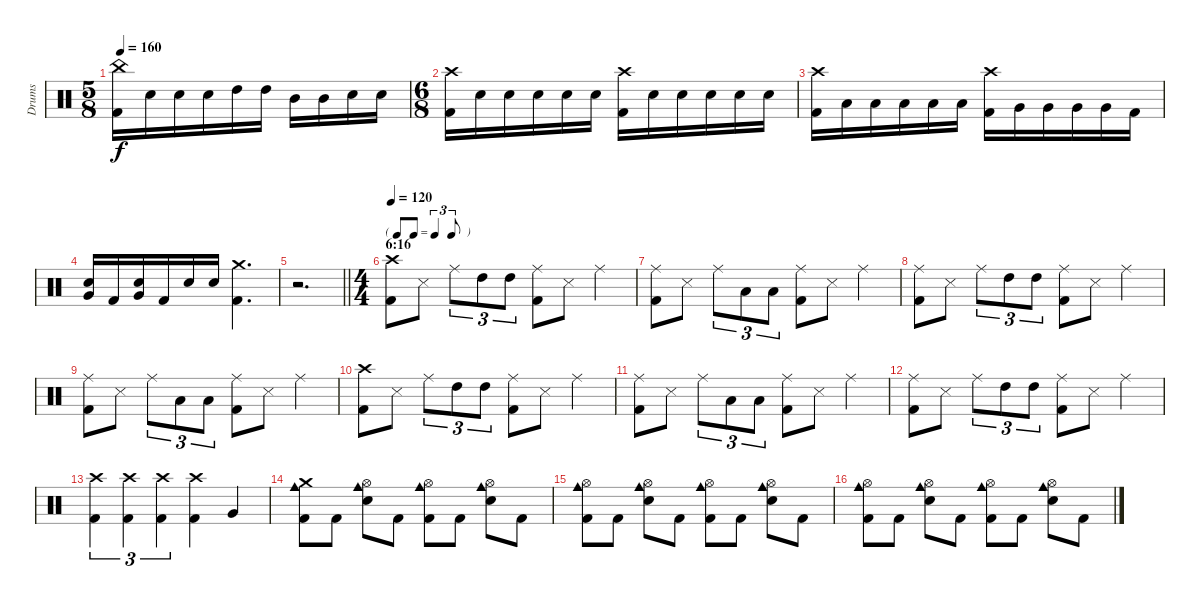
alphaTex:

\track ("Drums" "Drums") {instrument percussion}
\staff {score}
\articulation defaults
\ts (5 8)
\tempo 160
\clef neutral
\ks c
("China (hit)" "Kick (hit) 2").16{dy f} "Electric Snare (hit)".16 "Electric Snare (hit)".16 "Electric Snare (hit)".16 "High Tom (hit)".16 "High Tom (hit)".16 "Mid Tom (hit)".16 "Mid Tom (hit)".16 "Electric Snare (hit)".16 "Electric Snare (hit)".16 |
\ts (6 8)
("Crash high (hit)" "Kick (hit) 2").16 "Electric Snare (hit)".16 "Electric Snare (hit)".16 "Electric Snare (hit)".16 "Electric Snare (hit)".16 "Electric Snare (hit)".16 ("Crash high (hit)" "Kick (hit) 2").16 "Electric Snare (hit)".16 "Electric Snare (hit)".16 "Electric Snare (hit)".16 "Electric Snare (hit)".16 "Electric Snare (hit)".16 |
("Crash high (hit)" "Kick (hit) 2").16 "Low Tom (hit)".16 "Low Tom (hit)".16 "Low Tom (hit)".16 "Low Tom (hit)".16 "Low Tom (hit)".16 ("Crash high (hit)" "Kick (hit) 2").16 "Very Low Tom (hit)".16 "Very Low Tom (hit)".16 "Very Low Tom (hit)".16 "Very Low Tom (hit)".16 "Kick (hit) 2".16 |
("Electric Snare (hit)" "Very Low Tom (hit)").16 "Kick (hit) 2".16 ("Electric Snare (hit)" "Very Low Tom (hit)").16 "Kick (hit) 2".16 "Electric Snare (hit)".16 "Electric Snare (hit)".16 ("Crash medium (hit)" "Kick (hit) 2").4{d} |
\barLineRight lightlight
r.2{d} |
\ts (4 4)
\tf triplet8th
\section ("" "6:16")
\tempo 120
("Crash high (hit)" "Kick (hit) 2").8 "Snare (side stick) 3".8 "Ride (middle)".8{tu (3 2)} "High Tom (hit)".8{tu (3 2)} "High Tom (hit)".8{tu (3 2)} ("Ride (middle)" "Kick (hit) 2").8 "Snare (side stick) 3".8 "Ride (middle)".4 |
("Ride (middle)" "Kick (hit) 2").8 "Snare (side stick) 3".8 "Ride (middle)".8{tu (3 2)} "Low Tom (hit)".8{tu (3 2)} "Low Tom (hit)".8{tu (3 2)} ("Ride (middle)" "Kick (hit) 2").8 "Snare (side stick) 3".8 "Ride (middle)".4 |
("Ride (middle)" "Kick (hit) 2").8 "Snare (side stick) 3".8 "Ride (middle)".8{tu (3 2)} "High Tom (hit)".8{tu (3 2)} "High Tom (hit)".8{tu (3 2)} ("Ride (middle)" "Kick (hit) 2").8 "Snare (side stick) 3".8 "Ride (middle)".4 |
("Ride (middle)" "Kick (hit) 2").8 "Snare (side stick) 3".8 "Ride (middle)".8{tu (3 2)} "Low Tom (hit)".8{tu (3 2)} "Low Tom (hit)".8{tu (3 2)} ("Ride (middle)" "Kick (hit) 2").8 "Snare (side stick) 3".8 "Ride (middle)".4 |
("Crash high (hit)" "Kick (hit) 2").8 "Snare (side stick) 3".8 "Ride (middle)".8{tu (3 2)} "High Tom (hit)".8{tu (3 2)} "High Tom (hit)".8{tu (3 2)} ("Ride (middle)" "Kick (hit) 2").8 "Snare (side stick) 3".8 "Ride (middle)".4 |
("Ride (middle)" "Kick (hit) 2").8 "Snare (side stick) 3".8 "Ride (middle)".8{tu (3 2)} "Low Tom (hit)".8{tu (3 2)} "Low Tom (hit)".8{tu (3 2)} ("Ride (middle)" "Kick (hit) 2").8 "Snare (side stick) 3".8 "Ride (middle)".4 |
("Ride (middle)" "Kick (hit) 2").8 "Snare (side stick) 3".8 "Ride (middle)".8{tu (3 2)} "High Tom (hit)".8{tu (3 2)} "High Tom (hit)".8{tu (3 2)} ("Ride (middle)" "Kick (hit) 2").8 "Snare (side stick) 3".8 "Ride (middle)".4 |
("Crash high (hit)" "Kick (hit) 2").4{tu (3 2)} ("Crash high (hit)" "Kick (hit) 2").4{tu (3 2)} ("Crash high (hit)" "Kick (hit) 2").4{tu (3 2)} ("Crash high (hit)" "Kick (hit) 2").4 "Very Low Tom (hit)".4 |
("Crash medium (hit)" "Cowbell medium (hit)" "Kick (hit) 2").8 "Kick (hit) 2".8 ("Hi-Hat (open)" "Cowbell medium (hit)" "Electric Snare (hit)").8 "Kick (hit) 2".8 ("Hi-Hat (open)" "Cowbell medium (hit)" "Kick (hit) 2").8 "Kick (hit) 2".8 ("Hi-Hat (open)" "Cowbell medium (hit)" "Electric Snare (hit)").8 "Kick (hit) 2".8 |
("Hi-Hat (open)" "Cowbell medium (hit)" "Kick (hit) 2").8 "Kick (hit) 2".8 ("Hi-Hat (open)" "Cowbell medium (hit)" "Electric Snare (hit)").8 "Kick (hit) 2".8 ("Hi-Hat (open)" "Cowbell medium (hit)" "Kick (hit) 2").8 "Kick (hit) 2".8 ("Hi-Hat (open)" "Cowbell medium (hit)" "Electric Snare (hit)").8 "Kick (hit) 2".8 |
("Hi-Hat (open)" "Cowbell medium (hit)" "Kick (hit) 2").8 "Kick (hit) 2".8 ("Hi-Hat (open)" "Cowbell medium (hit)" "Electric Snare (hit)").8 "Kick (hit) 2".8 ("Hi-Hat (open)" "Cowbell medium (hit)" "Kick (hit) 2").8 "Kick (hit) 2".8 ("Hi-Hat (open)" "Cowbell medium (hit)" "Electric Snare (hit)").8 "Kick (hit) 2".8
